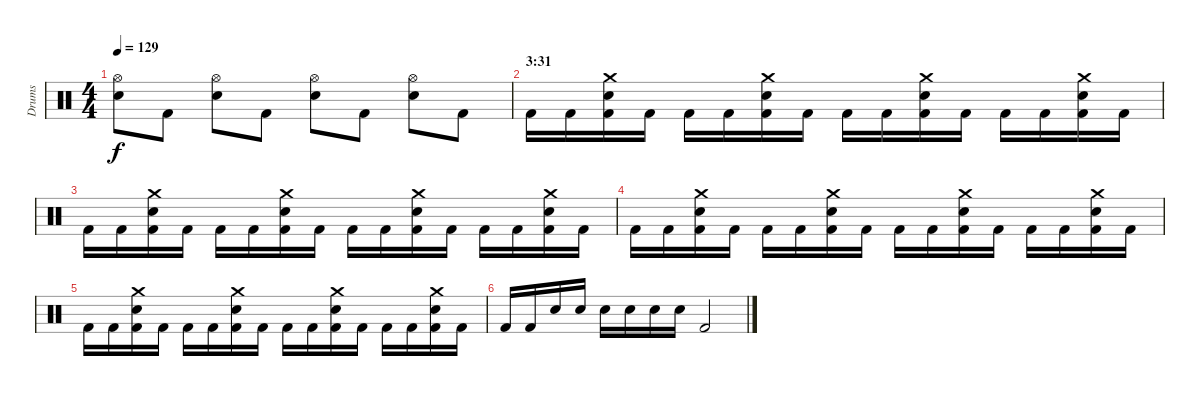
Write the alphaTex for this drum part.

\track ("Drums" "Drums") {instrument percussion}
\staff {score}
\articulation defaults
\ts (4 4)
\tempo 129
\clef neutral
\ks c
("Hi-Hat (open)" "Snare (hit) 2").8{dy f} "Kick (hit) 2".8 ("Hi-Hat (open)" "Snare (hit) 2").8 "Kick (hit) 2".8 ("Hi-Hat (open)" "Snare (hit) 2").8 "Kick (hit) 2".8 ("Hi-Hat (open)" "Snare (hit) 2").8 "Kick (hit) 2".8 |
\section ("" "3:31")
"Kick (hit) 2".16 "Kick (hit) 2".16 ("Crash medium (hit)" "Snare (hit) 2" "Kick (hit) 2").16 "Kick (hit) 2".16 "Kick (hit) 2".16 "Kick (hit) 2".16 ("Crash medium (hit)" "Snare (hit) 2" "Kick (hit) 2").16 "Kick (hit) 2".16 "Kick (hit) 2".16 "Kick (hit) 2".16 ("Crash medium (hit)" "Snare (hit) 2" "Kick (hit) 2").16 "Kick (hit) 2".16 "Kick (hit) 2".16 "Kick (hit) 2".16 ("Crash medium (hit)" "Snare (hit) 2" "Kick (hit) 2").16 "Kick (hit) 2".16 |
"Kick (hit) 2".16 "Kick (hit) 2".16 ("Crash medium (hit)" "Snare (hit) 2" "Kick (hit) 2").16 "Kick (hit) 2".16 "Kick (hit) 2".16 "Kick (hit) 2".16 ("Crash medium (hit)" "Snare (hit) 2" "Kick (hit) 2").16 "Kick (hit) 2".16 "Kick (hit) 2".16 "Kick (hit) 2".16 ("Crash medium (hit)" "Snare (hit) 2" "Kick (hit) 2").16 "Kick (hit) 2".16 "Kick (hit) 2".16 "Kick (hit) 2".16 ("Crash medium (hit)" "Snare (hit) 2" "Kick (hit) 2").16 "Kick (hit) 2".16 |
"Kick (hit) 2".16 "Kick (hit) 2".16 ("Crash medium (hit)" "Snare (hit) 2" "Kick (hit) 2").16 "Kick (hit) 2".16 "Kick (hit) 2".16 "Kick (hit) 2".16 ("Crash medium (hit)" "Snare (hit) 2" "Kick (hit) 2").16 "Kick (hit) 2".16 "Kick (hit) 2".16 "Kick (hit) 2".16 ("Crash medium (hit)" "Snare (hit) 2" "Kick (hit) 2").16 "Kick (hit) 2".16 "Kick (hit) 2".16 "Kick (hit) 2".16 ("Crash medium (hit)" "Snare (hit) 2" "Kick (hit) 2").16 "Kick (hit) 2".16 |
"Kick (hit) 2".16 "Kick (hit) 2".16 ("Crash medium (hit)" "Snare (hit) 2" "Kick (hit) 2").16 "Kick (hit) 2".16 "Kick (hit) 2".16 "Kick (hit) 2".16 ("Crash medium (hit)" "Snare (hit) 2" "Kick (hit) 2").16 "Kick (hit) 2".16 "Kick (hit) 2".16 "Kick (hit) 2".16 ("Crash medium (hit)" "Snare (hit) 2" "Kick (hit) 2").16 "Kick (hit) 2".16 "Kick (hit) 2".16 "Kick (hit) 2".16 ("Crash medium (hit)" "Snare (hit) 2" "Kick (hit) 2").16 "Kick (hit) 2".16 |
"Kick (hit) 2".16 "Kick (hit) 2".16 "Snare (hit) 2".16 "Snare (hit) 2".16 "Snare (hit) 2".16 "Snare (hit) 2".16 "Snare (hit) 2".16 "Snare (hit) 2".16 "Kick (hit) 2".2
